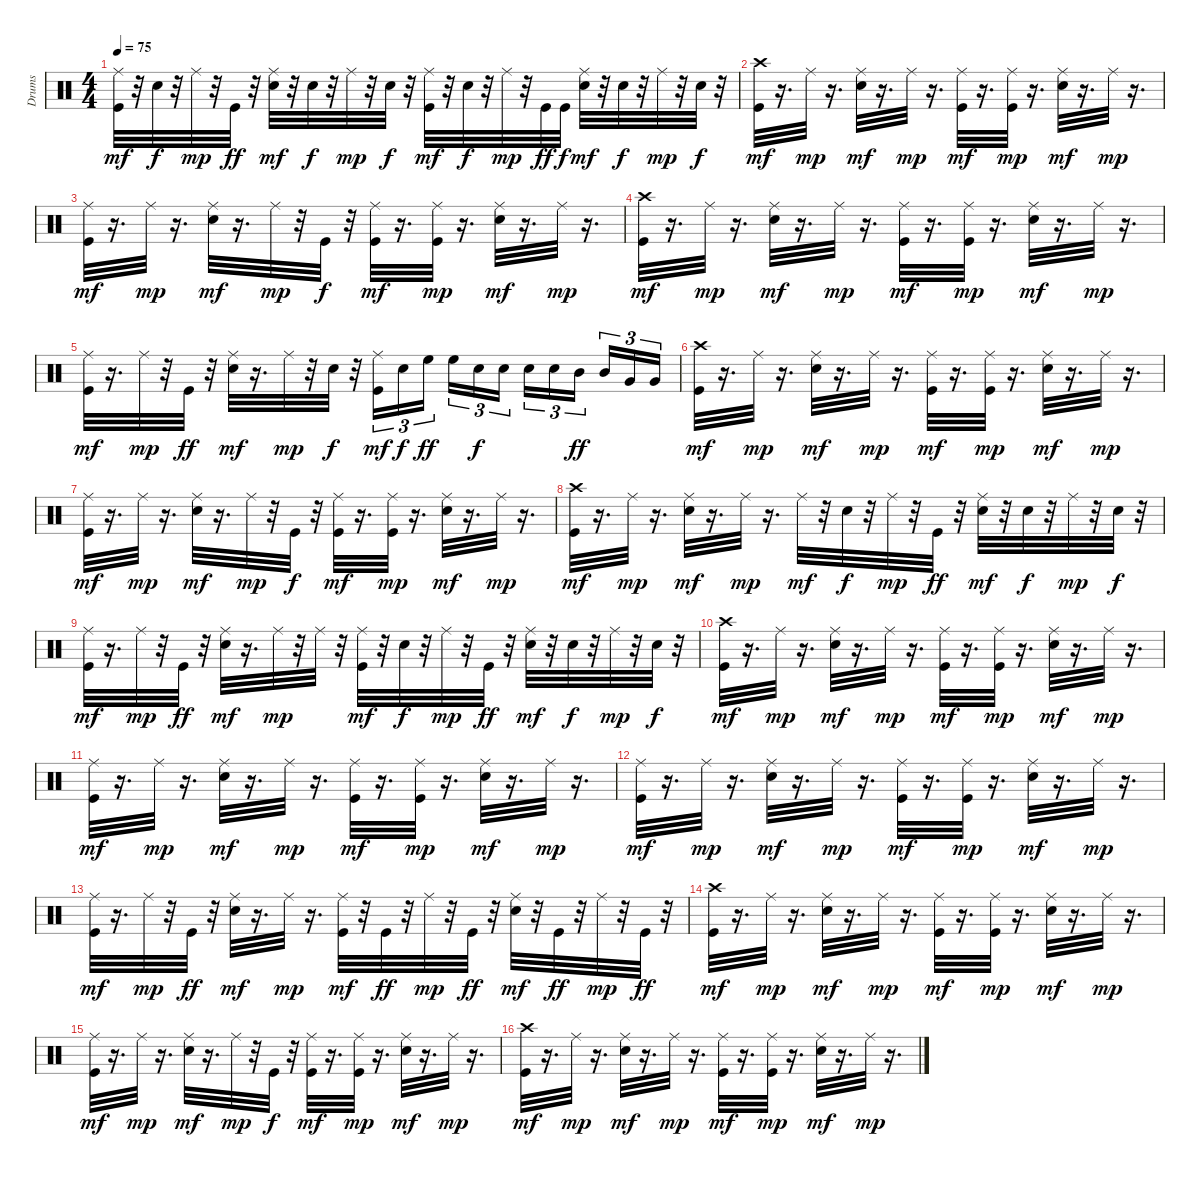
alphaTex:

\track ("Drums" "Drums") {instrument percussion}
\staff {score}
\articulation defaults
\ts (4 4)
\tempo 75
\clef neutral
\ks c
("Kick (hit)" "Ride (middle)").32{dy mf} r.32 "Snare (hit) 2".32{dy f} r.32 "Ride (middle)".32{dy mp} r.32 "Kick (hit)".32{dy ff} r.32 ("Snare (hit) 2" "Ride (middle)").32{dy mf} r.32 "Snare (hit) 2".32{dy f} r.32 "Ride (middle)".32{dy mp} r.32 "Snare (hit) 2".32{dy f} r.32 ("Kick (hit)" "Ride (middle)").32{dy mf} r.32 "Snare (hit) 2".32{dy f} r.32 "Ride (middle)".32{dy mp} r.32 "Kick (hit)".32{dy ff} "Kick (hit)".32{dy f} ("Snare (hit) 2" "Ride (middle)").32{dy mf} r.32 "Snare (hit) 2".32{dy f} r.32 "Ride (middle)".32{dy mp} r.32 "Snare (hit) 2".32{dy f} r.32 |
("Kick (hit)" "Crash high (hit)").32{dy mf} r.16{d} "Ride (middle)".32{dy mp} r.16{d} ("Snare (hit) 2" "Ride (middle)").32{dy mf} r.16{d} "Ride (middle)".32{dy mp} r.16{d} ("Kick (hit)" "Ride (middle)").32{dy mf} r.16{d} ("Kick (hit)" "Ride (middle)").32{dy mp} r.16{d} ("Snare (hit) 2" "Ride (middle)").32{dy mf} r.16{d} "Ride (middle)".32{dy mp} r.16{d} |
("Kick (hit)" "Ride (middle)").32{dy mf} r.16{d} "Ride (middle)".32{dy mp} r.16{d} ("Snare (hit) 2" "Ride (middle)").32{dy mf} r.16{d} "Ride (middle)".32{dy mp} r.32 "Kick (hit)".32{dy f} r.32 ("Kick (hit)" "Ride (middle)").32{dy mf} r.16{d} ("Kick (hit)" "Ride (middle)").32{dy mp} r.16{d} ("Snare (hit) 2" "Ride (middle)").32{dy mf} r.16{d} "Ride (middle)".32{dy mp} r.16{d} |
("Kick (hit)" "Crash high (hit)").32{dy mf} r.16{d} "Ride (middle)".32{dy mp} r.16{d} ("Snare (hit) 2" "Ride (middle)").32{dy mf} r.16{d} "Ride (middle)".32{dy mp} r.16{d} ("Kick (hit)" "Ride (middle)").32{dy mf} r.16{d} ("Kick (hit)" "Ride (middle)").32{dy mp} r.16{d} ("Snare (hit) 2" "Ride (middle)").32{dy mf} r.16{d} "Ride (middle)".32{dy mp} r.16{d} |
("Kick (hit)" "Ride (middle)").32{dy mf} r.16{d} "Ride (middle)".32{dy mp} r.32 "Kick (hit)".32{dy ff} r.32 ("Snare (hit) 2" "Ride (middle)").32{dy mf} r.16{d} "Ride (middle)".32{dy mp} r.32 "Snare (hit) 2".32{dy f} r.32 ("Kick (hit)" "Ride (middle)").16{tu (3 2) dy mf} "Snare (hit) 2".16{tu (3 2) dy f} "High Floor Tom (hit)".16{tu (3 2) dy ff} "High Floor Tom (hit)".16{tu (3 2)} "Snare (hit) 2".16{tu (3 2) dy f} "Snare (hit) 2".16{tu (3 2)} "Snare (hit) 2".16{tu (3 2)} "Snare (hit) 2".16{tu (3 2)} "Mid Tom (hit)".16{tu (3 2) dy ff} "Mid Tom (hit)".16{tu (3 2)} "Very Low Tom (hit)".16{tu (3 2)} "Very Low Tom (hit)".16{tu (3 2)} |
("Kick (hit)" "Crash high (hit)").32{dy mf} r.16{d} "Ride (middle)".32{dy mp} r.16{d} ("Snare (hit) 2" "Ride (middle)").32{dy mf} r.16{d} "Ride (middle)".32{dy mp} r.16{d} ("Kick (hit)" "Ride (middle)").32{dy mf} r.16{d} ("Kick (hit)" "Ride (middle)").32{dy mp} r.16{d} ("Snare (hit) 2" "Ride (middle)").32{dy mf} r.16{d} "Ride (middle)".32{dy mp} r.16{d} |
("Kick (hit)" "Ride (middle)").32{dy mf} r.16{d} "Ride (middle)".32{dy mp} r.16{d} ("Snare (hit) 2" "Ride (middle)").32{dy mf} r.16{d} "Ride (middle)".32{dy mp} r.32 "Kick (hit)".32{dy f} r.32 ("Kick (hit)" "Ride (middle)").32{dy mf} r.16{d} ("Kick (hit)" "Ride (middle)").32{dy mp} r.16{d} ("Snare (hit) 2" "Ride (middle)").32{dy mf} r.16{d} "Ride (middle)".32{dy mp} r.16{d} |
("Kick (hit)" "Crash high (hit)").32{dy mf} r.16{d} "Ride (middle)".32{dy mp} r.16{d} ("Snare (hit) 2" "Ride (middle)").32{dy mf} r.16{d} "Ride (middle)".32{dy mp} r.16{d} "Ride (middle)".32{dy mf} r.32 "Snare (hit) 2".32{dy f} r.32 "Ride (middle)".32{dy mp} r.32 "Kick (hit)".32{dy ff} r.32 ("Snare (hit) 2" "Ride (middle)").32{dy mf} r.32 "Snare (hit) 2".32{dy f} r.32 "Ride (middle)".32{dy mp} r.32 "Snare (hit) 2".32{dy f} r.32 |
("Kick (hit)" "Ride (middle)").32{dy mf} r.16{d} "Ride (middle)".32{dy mp} r.32 "Kick (hit)".32{dy ff} r.32 ("Snare (hit) 2" "Ride (middle)").32{dy mf} r.16{d} "Ride (middle)".32{dy mp} r.32 "Ride (middle)".32 r.32 ("Kick (hit)" "Ride (middle)").32{dy mf} r.32 "Snare (hit) 2".32{dy f} r.32 "Ride (middle)".32{dy mp} r.32 "Kick (hit)".32{dy ff} r.32 ("Snare (hit) 2" "Ride (middle)").32{dy mf} r.32 "Snare (hit) 2".32{dy f} r.32 "Ride (middle)".32{dy mp} r.32 "Snare (hit) 2".32{dy f} r.32 |
("Kick (hit)" "Crash high (hit)").32{dy mf} r.16{d} "Ride (middle)".32{dy mp} r.16{d} ("Snare (hit) 2" "Ride (middle)").32{dy mf} r.16{d} "Ride (middle)".32{dy mp} r.16{d} ("Kick (hit)" "Ride (middle)").32{dy mf} r.16{d} ("Kick (hit)" "Ride (middle)").32{dy mp} r.16{d} ("Snare (hit) 2" "Ride (middle)").32{dy mf} r.16{d} "Ride (middle)".32{dy mp} r.16{d} |
("Kick (hit)" "Ride (middle)").32{dy mf} r.16{d} "Ride (middle)".32{dy mp} r.16{d} ("Snare (hit) 2" "Ride (middle)").32{dy mf} r.16{d} "Ride (middle)".32{dy mp} r.16{d} ("Kick (hit)" "Ride (middle)").32{dy mf} r.16{d} ("Kick (hit)" "Ride (middle)").32{dy mp} r.16{d} ("Snare (hit) 2" "Ride (middle)").32{dy mf} r.16{d} "Ride (middle)".32{dy mp} r.16{d} |
("Kick (hit)" "Ride (middle)").32{dy mf} r.16{d} "Ride (middle)".32{dy mp} r.16{d} ("Snare (hit) 2" "Ride (middle)").32{dy mf} r.16{d} "Ride (middle)".32{dy mp} r.16{d} ("Kick (hit)" "Ride (middle)").32{dy mf} r.16{d} ("Kick (hit)" "Ride (middle)").32{dy mp} r.16{d} ("Snare (hit) 2" "Ride (middle)").32{dy mf} r.16{d} "Ride (middle)".32{dy mp} r.16{d} |
("Kick (hit)" "Ride (middle)").32{dy mf} r.16{d} "Ride (middle)".32{dy mp} r.32 "Kick (hit)".32{dy ff} r.32 ("Snare (hit) 2" "Ride (middle)").32{dy mf} r.16{d} "Ride (middle)".32{dy mp} r.16{d} ("Kick (hit)" "Ride (middle)").32{dy mf} r.32 "Kick (hit)".32{dy ff} r.32 "Ride (middle)".32{dy mp} r.32 "Kick (hit)".32{dy ff} r.32 ("Snare (hit) 2" "Ride (middle)").32{dy mf} r.32 "Kick (hit)".32{dy ff} r.32 "Ride (middle)".32{dy mp} r.32 "Kick (hit)".32{dy ff} r.32 |
("Kick (hit)" "Crash high (hit)").32{dy mf} r.16{d} "Ride (middle)".32{dy mp} r.16{d} ("Snare (hit) 2" "Ride (middle)").32{dy mf} r.16{d} "Ride (middle)".32{dy mp} r.16{d} ("Kick (hit)" "Ride (middle)").32{dy mf} r.16{d} ("Kick (hit)" "Ride (middle)").32{dy mp} r.16{d} ("Snare (hit) 2" "Ride (middle)").32{dy mf} r.16{d} "Ride (middle)".32{dy mp} r.16{d} |
("Kick (hit)" "Ride (middle)").32{dy mf} r.16{d} "Ride (middle)".32{dy mp} r.16{d} ("Snare (hit) 2" "Ride (middle)").32{dy mf} r.16{d} "Ride (middle)".32{dy mp} r.32 "Kick (hit)".32{dy f} r.32 ("Kick (hit)" "Ride (middle)").32{dy mf} r.16{d} ("Kick (hit)" "Ride (middle)").32{dy mp} r.16{d} ("Snare (hit) 2" "Ride (middle)").32{dy mf} r.16{d} "Ride (middle)".32{dy mp} r.16{d} |
("Kick (hit)" "Crash high (hit)").32{dy mf} r.16{d} "Ride (middle)".32{dy mp} r.16{d} ("Snare (hit) 2" "Ride (middle)").32{dy mf} r.16{d} "Ride (middle)".32{dy mp} r.16{d} ("Kick (hit)" "Ride (middle)").32{dy mf} r.16{d} ("Kick (hit)" "Ride (middle)").32{dy mp} r.16{d} ("Snare (hit) 2" "Ride (middle)").32{dy mf} r.16{d} "Ride (middle)".32{dy mp} r.16{d}
